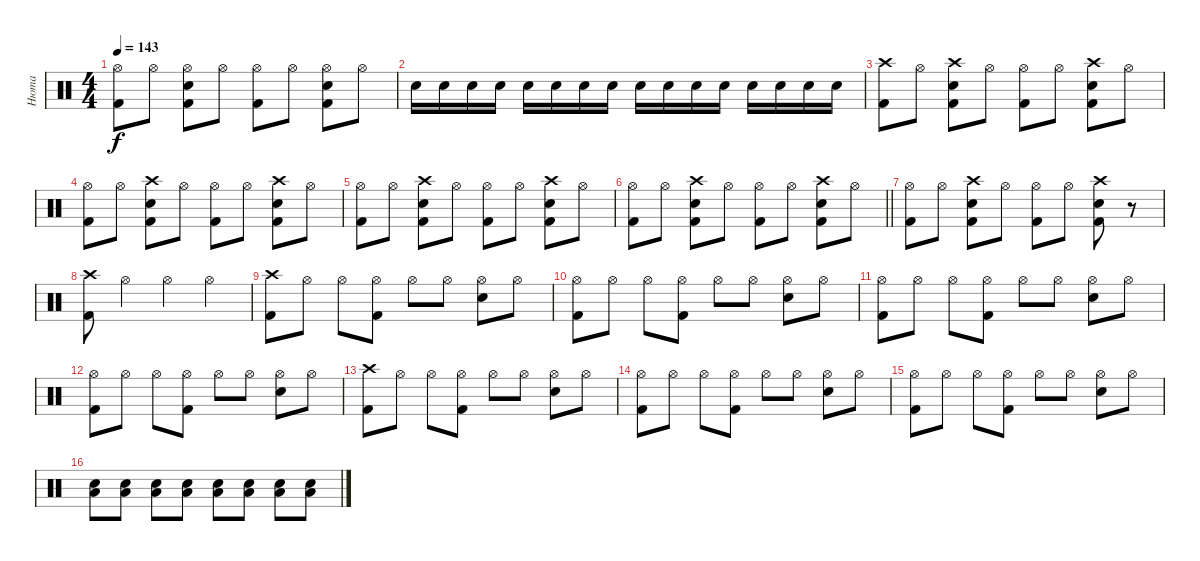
\track ("Нюта" "Нюта") {instrument percussion}
\staff {score}
\articulation defaults
\ts (4 4)
\tempo 143
\clef neutral
\ks c
("Hi-Hat (open)" "Kick (hit) 2").8{dy f} "Hi-Hat (open)".8 ("Hi-Hat (open)" "Snare (hit) 2" "Kick (hit) 2").8 "Hi-Hat (open)".8 ("Hi-Hat (open)" "Kick (hit) 2").8 "Hi-Hat (open)".8 ("Hi-Hat (open)" "Snare (hit) 2" "Kick (hit) 2").8 "Hi-Hat (open)".8 |
"Snare (hit) 2".16 "Snare (hit) 2".16 "Snare (hit) 2".16 "Snare (hit) 2".16 "Snare (hit) 2".16 "Snare (hit) 2".16 "Snare (hit) 2".16 "Snare (hit) 2".16 "Snare (hit) 2".16 "Snare (hit) 2".16 "Snare (hit) 2".16 "Snare (hit) 2".16 "Snare (hit) 2".16 "Snare (hit) 2".16 "Snare (hit) 2".16 "Snare (hit) 2".16 |
("Crash high (hit)" "Kick (hit) 2").8 "Hi-Hat (open)".8 ("Crash high (hit)" "Snare (hit) 2" "Kick (hit) 2").8 "Hi-Hat (open)".8 ("Hi-Hat (open)" "Kick (hit) 2").8 "Hi-Hat (open)".8 ("Crash high (hit)" "Snare (hit) 2" "Kick (hit) 2").8 "Hi-Hat (open)".8 |
("Hi-Hat (open)" "Kick (hit) 2").8 "Hi-Hat (open)".8 ("Crash high (hit)" "Snare (hit) 2" "Kick (hit) 2").8 "Hi-Hat (open)".8 ("Hi-Hat (open)" "Kick (hit) 2").8 "Hi-Hat (open)".8 ("Crash high (hit)" "Snare (hit) 2" "Kick (hit) 2").8 "Hi-Hat (open)".8 |
("Hi-Hat (open)" "Kick (hit) 2").8 "Hi-Hat (open)".8 ("Crash high (hit)" "Snare (hit) 2" "Kick (hit) 2").8 "Hi-Hat (open)".8 ("Hi-Hat (open)" "Kick (hit) 2").8 "Hi-Hat (open)".8 ("Crash high (hit)" "Snare (hit) 2" "Kick (hit) 2").8 "Hi-Hat (open)".8 |
\barLineRight lightlight
("Hi-Hat (open)" "Kick (hit) 2").8 "Hi-Hat (open)".8 ("Crash high (hit)" "Snare (hit) 2" "Kick (hit) 2").8 "Hi-Hat (open)".8 ("Hi-Hat (open)" "Kick (hit) 2").8 "Hi-Hat (open)".8 ("Crash high (hit)" "Snare (hit) 2" "Kick (hit) 2").8 "Hi-Hat (open)".8 |
("Hi-Hat (open)" "Kick (hit) 2").8 "Hi-Hat (open)".8 ("Crash high (hit)" "Snare (hit) 2" "Kick (hit) 2").8 "Hi-Hat (open)".8 ("Hi-Hat (open)" "Kick (hit) 2").8 "Hi-Hat (open)".8 ("Crash high (hit)" "Snare (hit) 2" "Kick (hit) 2").8 r.8 |
("Crash high (hit)" "Kick (hit) 2").8 "Hi-Hat (open)".4 "Hi-Hat (open)".4 "Hi-Hat (open)".4 |
("Crash high (hit)" "Kick (hit) 2").8 "Hi-Hat (open)".8 "Hi-Hat (open)".8 ("Hi-Hat (open)" "Kick (hit) 2").8 "Hi-Hat (open)".8 "Hi-Hat (open)".8 ("Hi-Hat (open)" "Snare (hit) 2").8 "Hi-Hat (open)".8 |
("Hi-Hat (open)" "Kick (hit) 2").8 "Hi-Hat (open)".8 "Hi-Hat (open)".8 ("Hi-Hat (open)" "Kick (hit) 2").8 "Hi-Hat (open)".8 "Hi-Hat (open)".8 ("Hi-Hat (open)" "Snare (hit) 2").8 "Hi-Hat (open)".8 |
("Hi-Hat (open)" "Kick (hit) 2").8 "Hi-Hat (open)".8 "Hi-Hat (open)".8 ("Hi-Hat (open)" "Kick (hit) 2").8 "Hi-Hat (open)".8 "Hi-Hat (open)".8 ("Hi-Hat (open)" "Snare (hit) 2").8 "Hi-Hat (open)".8 |
("Hi-Hat (open)" "Kick (hit) 2").8 "Hi-Hat (open)".8 "Hi-Hat (open)".8 ("Hi-Hat (open)" "Kick (hit) 2").8 "Hi-Hat (open)".8 "Hi-Hat (open)".8 ("Hi-Hat (open)" "Snare (hit) 2").8 "Hi-Hat (open)".8 |
("Crash high (hit)" "Kick (hit) 2").8 "Hi-Hat (open)".8 "Hi-Hat (open)".8 ("Hi-Hat (open)" "Kick (hit) 2").8 "Hi-Hat (open)".8 "Hi-Hat (open)".8 ("Hi-Hat (open)" "Snare (hit) 2").8 "Hi-Hat (open)".8 |
("Hi-Hat (open)" "Kick (hit) 2").8 "Hi-Hat (open)".8 "Hi-Hat (open)".8 ("Hi-Hat (open)" "Kick (hit) 2").8 "Hi-Hat (open)".8 "Hi-Hat (open)".8 ("Hi-Hat (open)" "Snare (hit) 2").8 "Hi-Hat (open)".8 |
("Hi-Hat (open)" "Kick (hit) 2").8 "Hi-Hat (open)".8 "Hi-Hat (open)".8 ("Hi-Hat (open)" "Kick (hit) 2").8 "Hi-Hat (open)".8 "Hi-Hat (open)".8 ("Hi-Hat (open)" "Snare (hit) 2").8 "Hi-Hat (open)".8 |
("Snare (hit) 2" "Low Tom (hit)").8 ("Snare (hit) 2" "Low Tom (hit)").8 ("Snare (hit) 2" "Low Tom (hit)").8 ("Snare (hit) 2" "Low Tom (hit)").8 ("Snare (hit) 2" "Low Tom (hit)").8 ("Snare (hit) 2" "Low Tom (hit)").8 ("Snare (hit) 2" "Low Tom (hit)").8 ("Snare (hit) 2" "Low Tom (hit)").8
